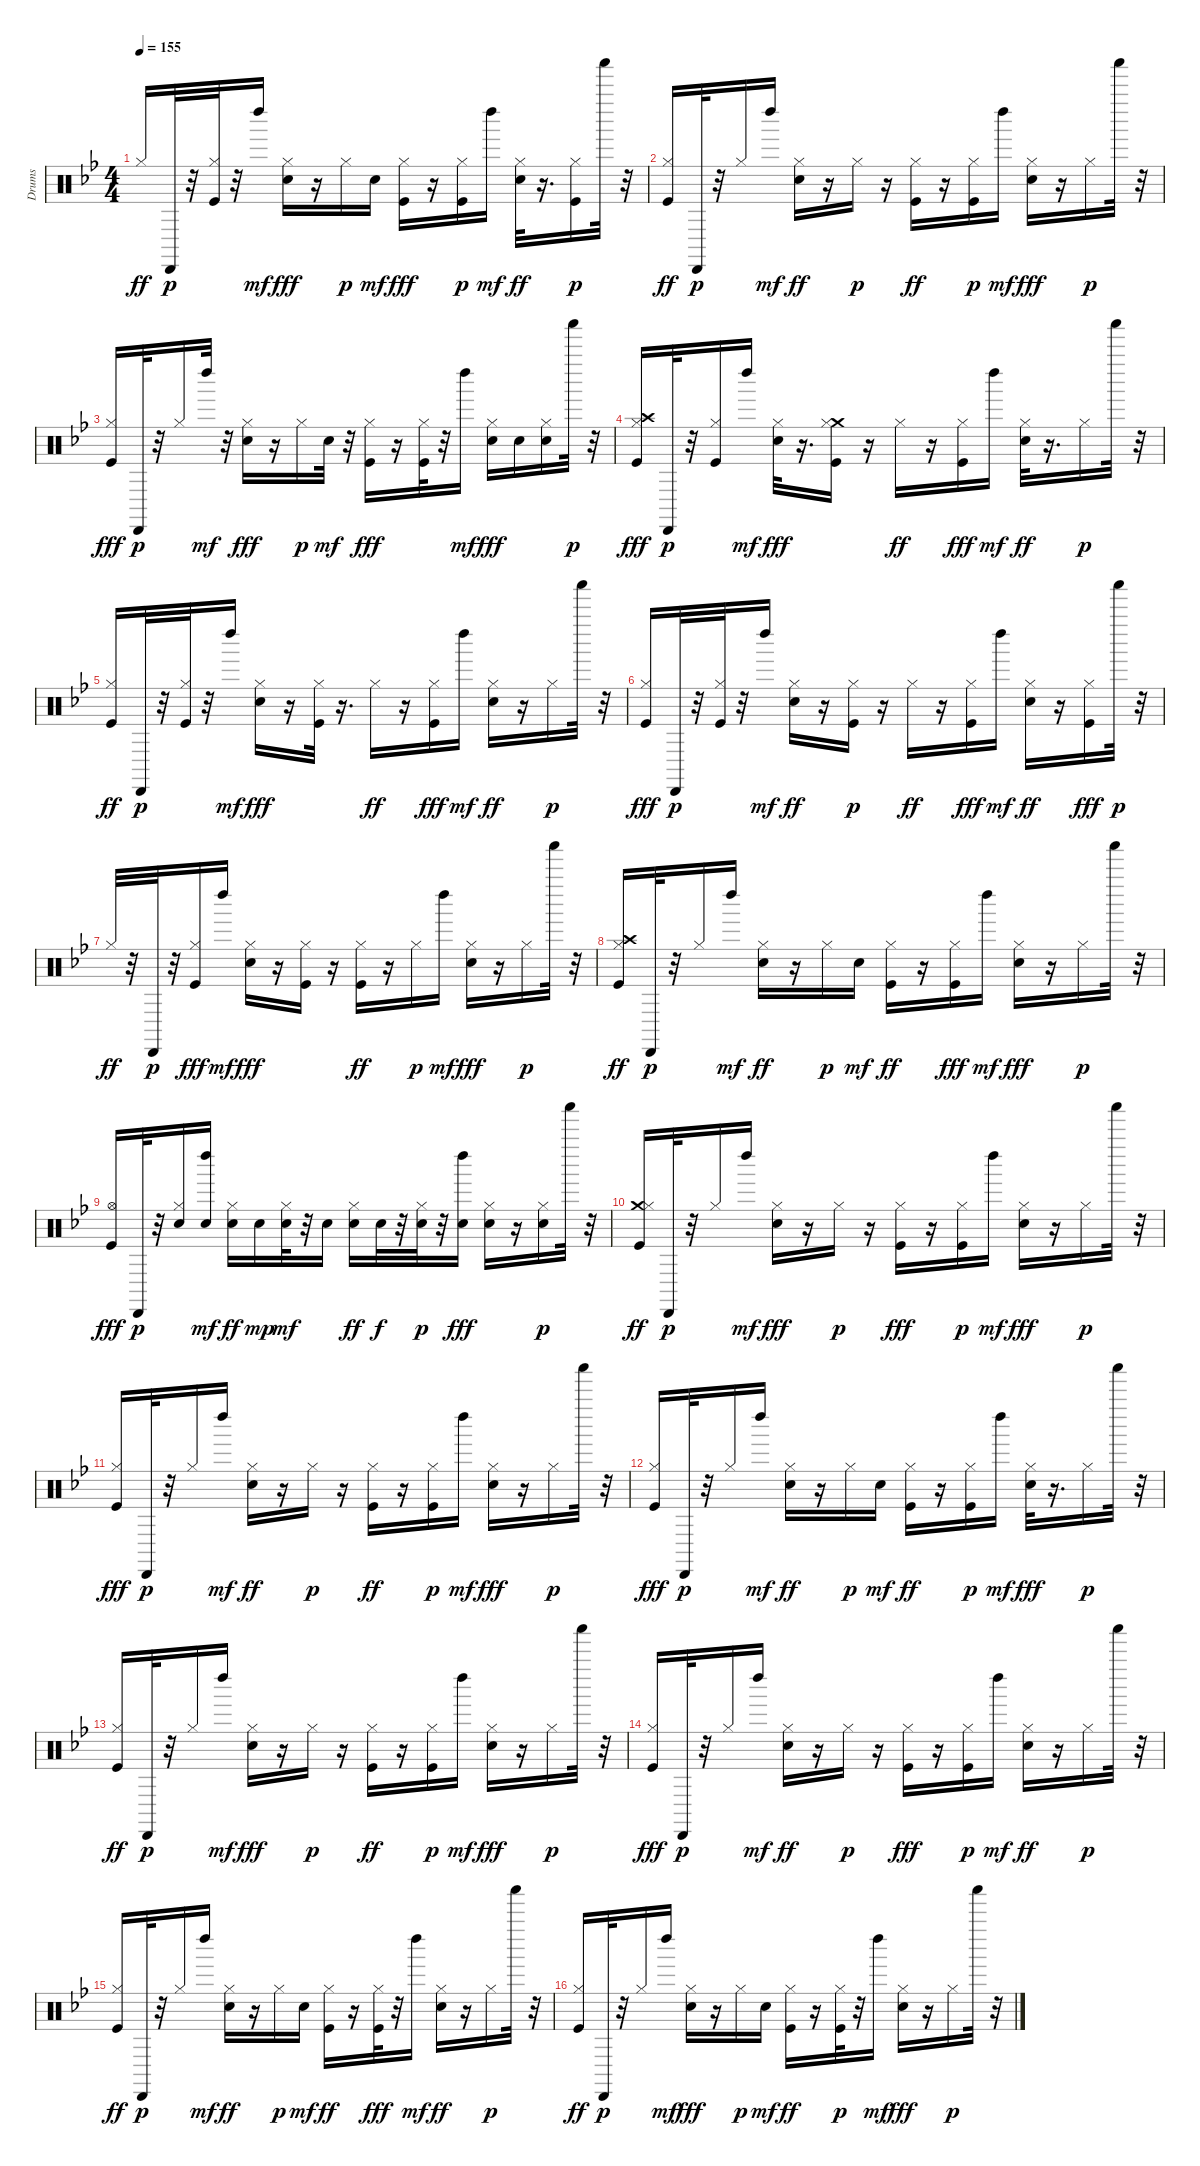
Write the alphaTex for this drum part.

\track ("Drums" "Drums") {instrument percussion}
\staff {score}
\articulation defaults
\ts (4 4)
\tempo 155
\clef neutral
\ks bb "Hi-Hat (closed)".16{dy ff} "Cabasa (hit)".32{dy p}
r.32 ("Kick (hit)" "Hi-Hat (closed)").32 r.32 "Left Maraca (hit)".16{dy mf} ("Hi-Hat (closed)" "Electric Snare (hit)").16{dy fff} r.16 "Hi-Hat (closed)".16{dy p} "Electric Snare (hit)".16{dy mf} ("Hi-Hat (closed)" "Kick (hit)").16{dy fff} r.16 ("Kick (hit)" "Hi-Hat (closed)").16{dy p} "Left Maraca (hit)".16{dy mf} ("Electric Snare (hit)" "Hi-Hat (closed)").32{dy ff} r.16{d} ("Kick (hit)" "Hi-Hat (closed)").16{dy p} "Shaker (hit)".32 r.32 |
("Kick (hit)" "Hi-Hat (closed)").16{dy ff} "Cabasa (hit)".32{dy p} r.32 "Hi-Hat (closed)".16 "Left Maraca (hit)".16{dy mf} ("Electric Snare (hit)" "Hi-Hat (closed)").16{dy ff} r.16 "Hi-Hat (closed)".16{dy p} r.16 ("Kick (hit)" "Hi-Hat (closed)").16{dy ff} r.16 ("Kick (hit)" "Hi-Hat (closed)").16{dy p} "Left Maraca (hit)".16{dy mf} ("Hi-Hat (closed)" "Electric Snare (hit)").16{dy fff} r.16 "Hi-Hat (closed)".16{dy p} "Shaker (hit)".32 r.32 |
("Hi-Hat (closed)" "Kick (hit)").16{dy fff} "Cabasa (hit)".32{dy p} r.32 "Hi-Hat (closed)".16 "Left Maraca (hit)".32{dy mf} r.32 ("Hi-Hat (closed)" "Electric Snare (hit)").16{dy fff} r.16 "Hi-Hat (closed)".16{dy p} "Electric Snare (hit)".32{dy mf} r.32 ("Hi-Hat (closed)" "Kick (hit)").16{dy fff} r.16 ("Hi-Hat (closed)" "Kick (hit)").32 r.32 "Left Maraca (hit)".16{dy mf} ("Hi-Hat (closed)" "Electric Snare (hit)").16{dy fff} "Electric Snare (hit)".16 ("Hi-Hat (closed)" "Electric Snare (hit)").16 "Shaker (hit)".32{dy p} r.32 |
("Crash high (hit)" "Hi-Hat (closed)" "Kick (hit)").16{dy fff} "Cabasa (hit)".32{dy p} r.32 ("Kick (hit)" "Hi-Hat (closed)").16 "Left Maraca (hit)".16{dy mf} ("Hi-Hat (closed)" "Electric Snare (hit)").32{dy fff} r.16{d} ("Crash medium (hit)" "Hi-Hat (closed)" "Kick (hit)").16 r.16 "Hi-Hat (closed)".16{dy ff} r.16 ("Hi-Hat (closed)" "Kick (hit)").16{dy fff} "Left Maraca (hit)".16{dy mf} ("Electric Snare (hit)" "Hi-Hat (closed)").32{dy ff} r.16{d} "Hi-Hat (closed)".16{dy p} "Shaker (hit)".32 r.32 |
("Kick (hit)" "Hi-Hat (closed)").16{dy ff} "Cabasa (hit)".32{dy p} r.32 ("Kick (hit)" "Hi-Hat (closed)").32 r.32 "Left Maraca (hit)".16{dy mf} ("Hi-Hat (closed)" "Electric Snare (hit)").16{dy fff} r.16 ("Hi-Hat (closed)" "Kick (hit)").32 r.16{d} "Hi-Hat (closed)".16{dy ff} r.16 ("Hi-Hat (closed)" "Kick (hit)").16{dy fff} "Left Maraca (hit)".16{dy mf} ("Electric Snare (hit)" "Hi-Hat (closed)").16{dy ff} r.16 "Hi-Hat (closed)".16{dy p} "Shaker (hit)".32 r.32 |
("Hi-Hat (closed)" "Kick (hit)").16{dy fff} "Cabasa (hit)".32{dy p} r.32 ("Kick (hit)" "Hi-Hat (closed)").32 r.32 "Left Maraca (hit)".16{dy mf} ("Electric Snare (hit)" "Hi-Hat (closed)").16{dy ff} r.16 ("Kick (hit)" "Hi-Hat (closed)").16{dy p} r.16 "Hi-Hat (closed)".16{dy ff} r.16 ("Hi-Hat (closed)" "Kick (hit)").16{dy fff} "Left Maraca (hit)".16{dy mf} ("Electric Snare (hit)" "Hi-Hat (closed)").16{dy ff} r.16 ("Hi-Hat (closed)" "Kick (hit)").16{dy fff} "Shaker (hit)".32{dy p} r.32 |
"Hi-Hat (closed)".32{dy ff} r.32 "Cabasa (hit)".32{dy p} r.32 ("Hi-Hat (closed)" "Kick (hit)").16{dy fff} "Left Maraca (hit)".16{dy mf} ("Hi-Hat (closed)" "Electric Snare (hit)").16{dy fff} r.16 ("Hi-Hat (closed)" "Kick (hit)").16 r.16 ("Kick (hit)" "Hi-Hat (closed)").16{dy ff} r.16 "Hi-Hat (closed)".16{dy p} "Left Maraca (hit)".16{dy mf} ("Hi-Hat (closed)" "Electric Snare (hit)").16{dy fff} r.16 "Hi-Hat (closed)".16{dy p} "Shaker (hit)".32 r.32 |
("Crash high (hit)" "Kick (hit)" "Hi-Hat (closed)").16{dy ff} "Cabasa (hit)".32{dy p} r.32 "Hi-Hat (closed)".16 "Left Maraca (hit)".16{dy mf} ("Electric Snare (hit)" "Hi-Hat (closed)").16{dy ff} r.16 "Hi-Hat (closed)".16{dy p} "Electric Snare (hit)".16{dy mf} ("Kick (hit)" "Hi-Hat (closed)").16{dy ff} r.16 ("Hi-Hat (closed)" "Kick (hit)").16{dy fff} "Left Maraca (hit)".16{dy mf} ("Hi-Hat (closed)" "Electric Snare (hit)").16{dy fff} r.16 "Hi-Hat (closed)".16{dy p} "Shaker (hit)".32 r.32 |
("Hi-Hat (open)" "Kick (hit)").16{dy fff} "Cabasa (hit)".32{dy p} r.32 ("Electric Snare (hit)" "Hi-Hat (closed)").16 ("Electric Snare (hit)" "Left Maraca (hit)").16{dy mf} ("Electric Snare (hit)" "Hi-Hat (closed)").16{dy ff} "Electric Snare (hit)".16{dy mp} ("Hi-Hat (closed)" "Electric Snare (hit)").32{dy mf} r.32 "Electric Snare (hit)".16 ("Electric Snare (hit)" "Hi-Hat (closed)").16{dy ff} "Electric Snare (hit)".32{dy f} r.32 ("Electric Snare (hit)" "Hi-Hat (closed)").32{dy p} r.32 ("Left Maraca (hit)" "Electric Snare (hit)").16{dy fff} ("Hi-Hat (closed)" "Electric Snare (hit)").16 r.16 ("Electric Snare (hit)" "Hi-Hat (closed)").16{dy p} "Shaker (hit)".32 r.32 |
("Crash medium (hit)" "Kick (hit)" "Hi-Hat (closed)").16{dy ff} "Cabasa (hit)".32{dy p} r.32 "Hi-Hat (closed)".16 "Left Maraca (hit)".16{dy mf} ("Hi-Hat (closed)" "Electric Snare (hit)").16{dy fff} r.16 "Hi-Hat (closed)".16{dy p} r.16 ("Hi-Hat (closed)" "Kick (hit)").16{dy fff} r.16 ("Kick (hit)" "Hi-Hat (closed)").16{dy p} "Left Maraca (hit)".16{dy mf} ("Hi-Hat (closed)" "Electric Snare (hit)").16{dy fff} r.16 "Hi-Hat (closed)".16{dy p} "Shaker (hit)".32 r.32 |
("Hi-Hat (closed)" "Kick (hit)").16{dy fff} "Cabasa (hit)".32{dy p} r.32 "Hi-Hat (closed)".16 "Left Maraca (hit)".16{dy mf} ("Electric Snare (hit)" "Hi-Hat (closed)").16{dy ff} r.16 "Hi-Hat (closed)".16{dy p} r.16 ("Kick (hit)" "Hi-Hat (closed)").16{dy ff} r.16 ("Kick (hit)" "Hi-Hat (closed)").16{dy p} "Left Maraca (hit)".16{dy mf} ("Hi-Hat (closed)" "Electric Snare (hit)").16{dy fff} r.16 "Hi-Hat (closed)".16{dy p} "Shaker (hit)".32 r.32 |
("Hi-Hat (closed)" "Kick (hit)").16{dy fff} "Cabasa (hit)".32{dy p} r.32 "Hi-Hat (closed)".16 "Left Maraca (hit)".16{dy mf} ("Electric Snare (hit)" "Hi-Hat (closed)").16{dy ff} r.16 "Hi-Hat (closed)".16{dy p} "Electric Snare (hit)".16{dy mf} ("Kick (hit)" "Hi-Hat (closed)").16{dy ff} r.16 ("Kick (hit)" "Hi-Hat (closed)").16{dy p} "Left Maraca (hit)".16{dy mf} ("Hi-Hat (closed)" "Electric Snare (hit)").32{dy fff} r.16{d} "Hi-Hat (closed)".16{dy p} "Shaker (hit)".32 r.32 |
("Kick (hit)" "Hi-Hat (closed)").16{dy ff} "Cabasa (hit)".32{dy p} r.32 "Hi-Hat (closed)".16 "Left Maraca (hit)".16{dy mf} ("Hi-Hat (closed)" "Electric Snare (hit)").16{dy fff} r.16 "Hi-Hat (closed)".16{dy p} r.16 ("Kick (hit)" "Hi-Hat (closed)").16{dy ff} r.16 ("Kick (hit)" "Hi-Hat (closed)").16{dy p} "Left Maraca (hit)".16{dy mf} ("Hi-Hat (closed)" "Electric Snare (hit)").16{dy fff} r.16 "Hi-Hat (closed)".16{dy p} "Shaker (hit)".32 r.32 |
("Hi-Hat (closed)" "Kick (hit)").16{dy fff} "Cabasa (hit)".32{dy p} r.32 "Hi-Hat (closed)".16 "Left Maraca (hit)".16{dy mf} ("Electric Snare (hit)" "Hi-Hat (closed)").16{dy ff} r.16 "Hi-Hat (closed)".16{dy p} r.16 ("Hi-Hat (closed)" "Kick (hit)").16{dy fff} r.16 ("Kick (hit)" "Hi-Hat (closed)").16{dy p} "Left Maraca (hit)".16{dy mf} ("Electric Snare (hit)" "Hi-Hat (closed)").16{dy ff} r.16 "Hi-Hat (closed)".16{dy p} "Shaker (hit)".32 r.32 |
("Kick (hit)" "Hi-Hat (closed)").16{dy ff} "Cabasa (hit)".32{dy p} r.32 "Hi-Hat (closed)".16 "Left Maraca (hit)".16{dy mf} ("Electric Snare (hit)" "Hi-Hat (closed)").16{dy ff} r.16 "Hi-Hat (closed)".16{dy p} "Electric Snare (hit)".16{dy mf} ("Kick (hit)" "Hi-Hat (closed)").16{dy ff} r.16 ("Hi-Hat (closed)" "Kick (hit)").32{dy fff} r.32 "Left Maraca (hit)".16{dy mf} ("Electric Snare (hit)" "Hi-Hat (closed)").16{dy ff} r.16 "Hi-Hat (closed)".16{dy p} "Shaker (hit)".32 r.32 |
("Kick (hit)" "Hi-Hat (closed)").16{dy ff} "Cabasa (hit)".32{dy p} r.32 "Hi-Hat (closed)".16 "Left Maraca (hit)".16{dy mf} ("Hi-Hat (closed)" "Electric Snare (hit)").16{dy fff} r.16 "Hi-Hat (closed)".16{dy p} "Electric Snare (hit)".16{dy mf} ("Kick (hit)" "Hi-Hat (closed)").16{dy ff} r.16 ("Kick (hit)" "Hi-Hat (closed)").32{dy p} r.32 "Left Maraca (hit)".16{dy mf} ("Hi-Hat (closed)" "Electric Snare (hit)").16{dy fff} r.16 "Hi-Hat (closed)".16{dy p} "Shaker (hit)".32 r.32
